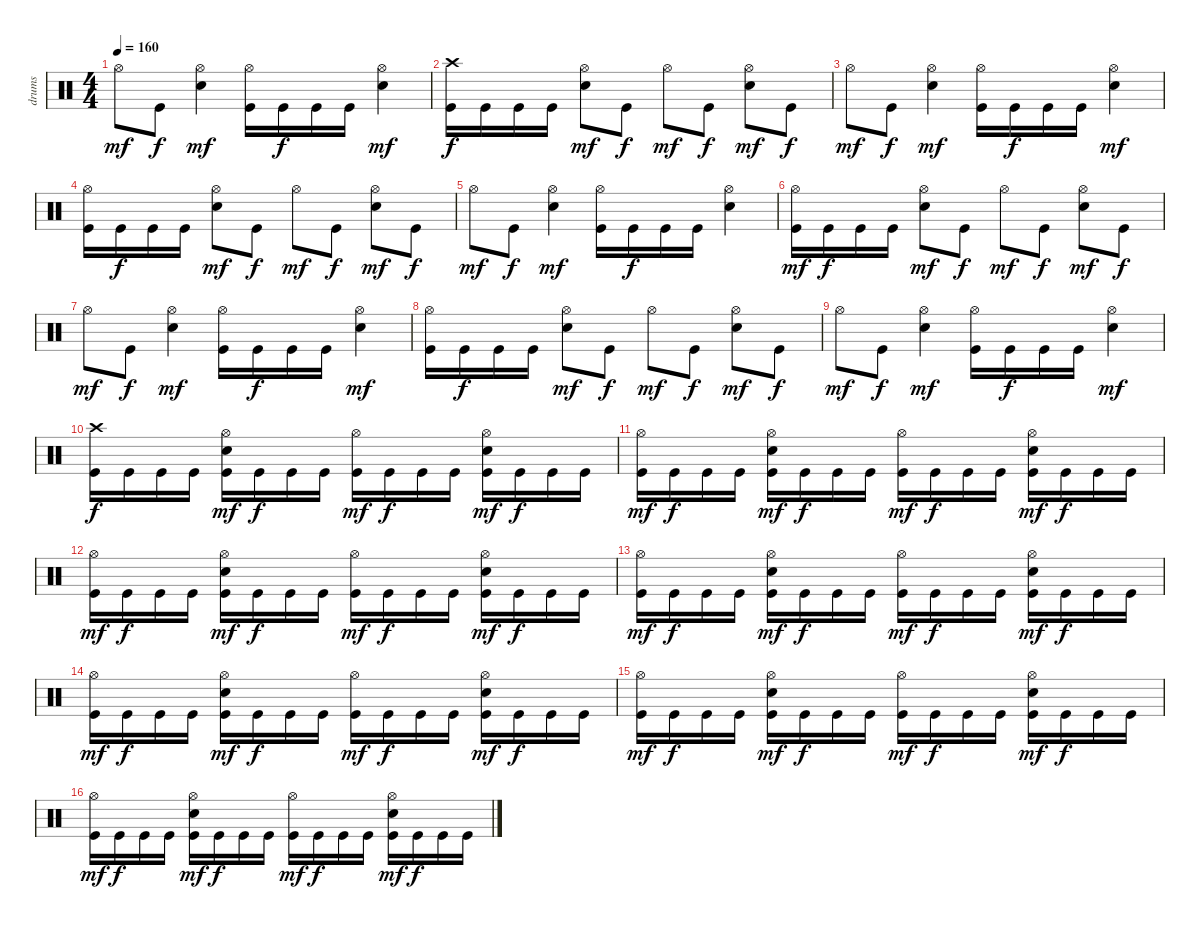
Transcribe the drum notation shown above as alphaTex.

\track ("drums" "drums") {instrument percussion}
\staff {score}
\articulation defaults
\ts (4 4)
\tempo 160
\clef neutral
\ks c "Hi-Hat (open)".8{dy mf} "Kick (hit)".8{dy f}
("Hi-Hat (open)" "Electric Snare (hit)").4{dy mf} ("Hi-Hat (open)" "Kick (hit)").16 "Kick (hit)".16{dy f} "Kick (hit)".16 "Kick (hit)".16 ("Hi-Hat (open)" "Electric Snare (hit)").4{dy mf} |
("Crash high (hit)" "Kick (hit)").16{dy f} "Kick (hit)".16 "Kick (hit)".16 "Kick (hit)".16 ("Hi-Hat (open)" "Electric Snare (hit)").8{dy mf} "Kick (hit)".8{dy f} "Hi-Hat (open)".8{dy mf} "Kick (hit)".8{dy f} ("Hi-Hat (open)" "Electric Snare (hit)").8{dy mf} "Kick (hit)".8{dy f} |
"Hi-Hat (open)".8{dy mf} "Kick (hit)".8{dy f} ("Hi-Hat (open)" "Electric Snare (hit)").4{dy mf} ("Hi-Hat (open)" "Kick (hit)").16 "Kick (hit)".16{dy f} "Kick (hit)".16 "Kick (hit)".16 ("Hi-Hat (open)" "Electric Snare (hit)").4{dy mf} |
("Hi-Hat (open)" "Kick (hit)").16 "Kick (hit)".16{dy f} "Kick (hit)".16 "Kick (hit)".16 ("Hi-Hat (open)" "Electric Snare (hit)").8{dy mf} "Kick (hit)".8{dy f} "Hi-Hat (open)".8{dy mf} "Kick (hit)".8{dy f} ("Hi-Hat (open)" "Electric Snare (hit)").8{dy mf} "Kick (hit)".8{dy f} |
"Hi-Hat (open)".8{dy mf} "Kick (hit)".8{dy f} ("Hi-Hat (open)" "Electric Snare (hit)").4{dy mf} ("Hi-Hat (open)" "Kick (hit)").16 "Kick (hit)".16{dy f} "Kick (hit)".16 "Kick (hit)".16 ("Hi-Hat (open)" "Electric Snare (hit)").4 |
("Hi-Hat (open)" "Kick (hit)").16{dy mf} "Kick (hit)".16{dy f} "Kick (hit)".16 "Kick (hit)".16 ("Hi-Hat (open)" "Electric Snare (hit)").8{dy mf} "Kick (hit)".8{dy f} "Hi-Hat (open)".8{dy mf} "Kick (hit)".8{dy f} ("Hi-Hat (open)" "Electric Snare (hit)").8{dy mf} "Kick (hit)".8{dy f} |
"Hi-Hat (open)".8{dy mf} "Kick (hit)".8{dy f} ("Hi-Hat (open)" "Electric Snare (hit)").4{dy mf} ("Hi-Hat (open)" "Kick (hit)").16 "Kick (hit)".16{dy f} "Kick (hit)".16 "Kick (hit)".16 ("Hi-Hat (open)" "Electric Snare (hit)").4{dy mf} |
("Hi-Hat (open)" "Kick (hit)").16 "Kick (hit)".16{dy f} "Kick (hit)".16 "Kick (hit)".16 ("Hi-Hat (open)" "Electric Snare (hit)").8{dy mf} "Kick (hit)".8{dy f} "Hi-Hat (open)".8{dy mf} "Kick (hit)".8{dy f} ("Hi-Hat (open)" "Electric Snare (hit)").8{dy mf} "Kick (hit)".8{dy f} |
"Hi-Hat (open)".8{dy mf} "Kick (hit)".8{dy f} ("Hi-Hat (open)" "Electric Snare (hit)").4{dy mf} ("Hi-Hat (open)" "Kick (hit)").16 "Kick (hit)".16{dy f} "Kick (hit)".16 "Kick (hit)".16 ("Hi-Hat (open)" "Electric Snare (hit)").4{dy mf} |
("Crash high (hit)" "Kick (hit)").16{dy f} "Kick (hit)".16 "Kick (hit)".16 "Kick (hit)".16 ("Hi-Hat (open)" "Electric Snare (hit)" "Kick (hit)").16{dy mf} "Kick (hit)".16{dy f} "Kick (hit)".16 "Kick (hit)".16 ("Hi-Hat (open)" "Kick (hit)").16{dy mf} "Kick (hit)".16{dy f} "Kick (hit)".16 "Kick (hit)".16 ("Hi-Hat (open)" "Electric Snare (hit)" "Kick (hit)").16{dy mf} "Kick (hit)".16{dy f} "Kick (hit)".16 "Kick (hit)".16 |
("Hi-Hat (open)" "Kick (hit)").16{dy mf} "Kick (hit)".16{dy f} "Kick (hit)".16 "Kick (hit)".16 ("Hi-Hat (open)" "Electric Snare (hit)" "Kick (hit)").16{dy mf} "Kick (hit)".16{dy f} "Kick (hit)".16 "Kick (hit)".16 ("Hi-Hat (open)" "Kick (hit)").16{dy mf} "Kick (hit)".16{dy f} "Kick (hit)".16 "Kick (hit)".16 ("Hi-Hat (open)" "Electric Snare (hit)" "Kick (hit)").16{dy mf} "Kick (hit)".16{dy f} "Kick (hit)".16 "Kick (hit)".16 |
("Hi-Hat (open)" "Kick (hit)").16{dy mf} "Kick (hit)".16{dy f} "Kick (hit)".16 "Kick (hit)".16 ("Hi-Hat (open)" "Electric Snare (hit)" "Kick (hit)").16{dy mf} "Kick (hit)".16{dy f} "Kick (hit)".16 "Kick (hit)".16 ("Hi-Hat (open)" "Kick (hit)").16{dy mf} "Kick (hit)".16{dy f} "Kick (hit)".16 "Kick (hit)".16 ("Hi-Hat (open)" "Electric Snare (hit)" "Kick (hit)").16{dy mf} "Kick (hit)".16{dy f} "Kick (hit)".16 "Kick (hit)".16 |
("Hi-Hat (open)" "Kick (hit)").16{dy mf} "Kick (hit)".16{dy f} "Kick (hit)".16 "Kick (hit)".16 ("Hi-Hat (open)" "Electric Snare (hit)" "Kick (hit)").16{dy mf} "Kick (hit)".16{dy f} "Kick (hit)".16 "Kick (hit)".16 ("Hi-Hat (open)" "Kick (hit)").16{dy mf} "Kick (hit)".16{dy f} "Kick (hit)".16 "Kick (hit)".16 ("Hi-Hat (open)" "Electric Snare (hit)" "Kick (hit)").16{dy mf} "Kick (hit)".16{dy f} "Kick (hit)".16 "Kick (hit)".16 |
("Hi-Hat (open)" "Kick (hit)").16{dy mf} "Kick (hit)".16{dy f} "Kick (hit)".16 "Kick (hit)".16 ("Hi-Hat (open)" "Electric Snare (hit)" "Kick (hit)").16{dy mf} "Kick (hit)".16{dy f} "Kick (hit)".16 "Kick (hit)".16 ("Hi-Hat (open)" "Kick (hit)").16{dy mf} "Kick (hit)".16{dy f} "Kick (hit)".16 "Kick (hit)".16 ("Hi-Hat (open)" "Electric Snare (hit)" "Kick (hit)").16{dy mf} "Kick (hit)".16{dy f} "Kick (hit)".16 "Kick (hit)".16 |
("Hi-Hat (open)" "Kick (hit)").16{dy mf} "Kick (hit)".16{dy f} "Kick (hit)".16 "Kick (hit)".16 ("Hi-Hat (open)" "Electric Snare (hit)" "Kick (hit)").16{dy mf} "Kick (hit)".16{dy f} "Kick (hit)".16 "Kick (hit)".16 ("Hi-Hat (open)" "Kick (hit)").16{dy mf} "Kick (hit)".16{dy f} "Kick (hit)".16 "Kick (hit)".16 ("Hi-Hat (open)" "Electric Snare (hit)" "Kick (hit)").16{dy mf} "Kick (hit)".16{dy f} "Kick (hit)".16 "Kick (hit)".16 |
("Hi-Hat (open)" "Kick (hit)").16{dy mf} "Kick (hit)".16{dy f} "Kick (hit)".16 "Kick (hit)".16 ("Hi-Hat (open)" "Electric Snare (hit)" "Kick (hit)").16{dy mf} "Kick (hit)".16{dy f} "Kick (hit)".16 "Kick (hit)".16 ("Hi-Hat (open)" "Kick (hit)").16{dy mf} "Kick (hit)".16{dy f} "Kick (hit)".16 "Kick (hit)".16 ("Hi-Hat (open)" "Electric Snare (hit)" "Kick (hit)").16{dy mf} "Kick (hit)".16{dy f} "Kick (hit)".16 "Kick (hit)".16
